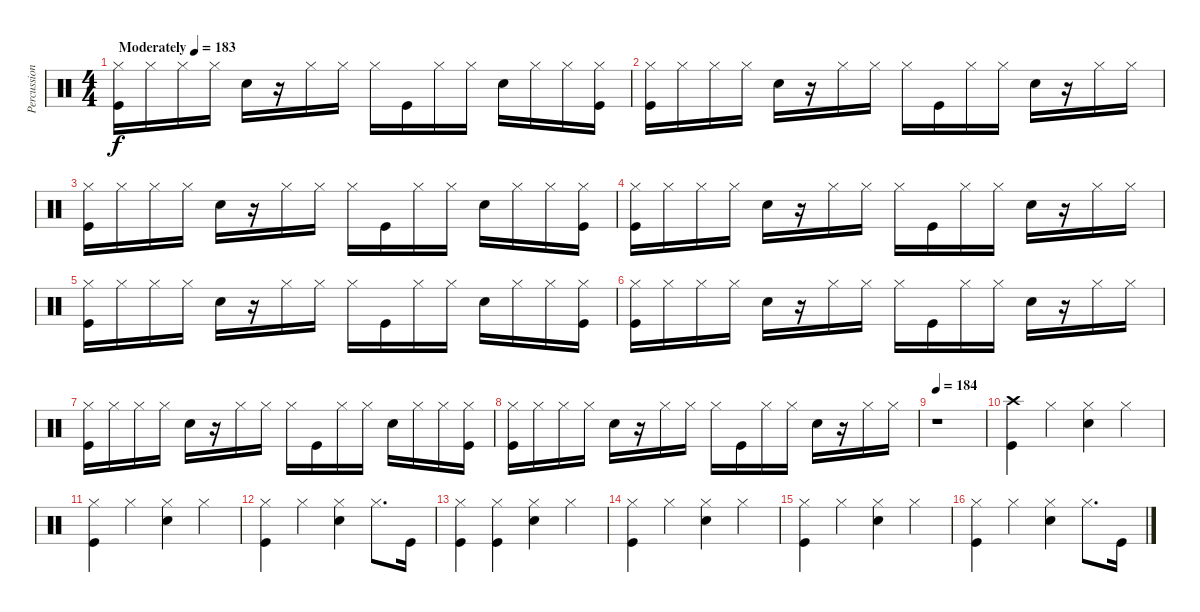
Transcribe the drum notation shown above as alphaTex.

\track ("Percussion" "Percussion") {instrument percussion}
\staff {score}
\articulation defaults
\ts (4 4)
\tempo (183 "Moderately")
\tempo 92
\tempo (183 "Moderately")
\clef neutral
\ks c
("Hi-Hat (closed)" "Kick (hit)").16{dy f} "Hi-Hat (closed)".16 "Hi-Hat (closed)".16 "Hi-Hat (closed)".16 "Snare (hit) 2".16 r.16 "Hi-Hat (closed)".16 "Hi-Hat (closed)".16 "Hi-Hat (closed)".16 "Kick (hit)".16 "Hi-Hat (closed)".16 "Hi-Hat (closed)".16 "Snare (hit) 2".16 "Hi-Hat (closed)".16 "Hi-Hat (closed)".16 ("Hi-Hat (closed)" "Kick (hit)").16 |
("Hi-Hat (closed)" "Kick (hit)").16 "Hi-Hat (closed)".16 "Hi-Hat (closed)".16 "Hi-Hat (closed)".16 "Snare (hit) 2".16 r.16 "Hi-Hat (closed)".16 "Hi-Hat (closed)".16 "Hi-Hat (closed)".16 "Kick (hit)".16 "Hi-Hat (closed)".16 "Hi-Hat (closed)".16 "Snare (hit) 2".16 r.16 "Hi-Hat (closed)".16 "Hi-Hat (closed)".16 |
("Hi-Hat (closed)" "Kick (hit)").16 "Hi-Hat (closed)".16 "Hi-Hat (closed)".16 "Hi-Hat (closed)".16 "Snare (hit) 2".16 r.16 "Hi-Hat (closed)".16 "Hi-Hat (closed)".16 "Hi-Hat (closed)".16 "Kick (hit)".16 "Hi-Hat (closed)".16 "Hi-Hat (closed)".16 "Snare (hit) 2".16 "Hi-Hat (closed)".16 "Hi-Hat (closed)".16 ("Hi-Hat (closed)" "Kick (hit)").16 |
("Hi-Hat (closed)" "Kick (hit)").16 "Hi-Hat (closed)".16 "Hi-Hat (closed)".16 "Hi-Hat (closed)".16 "Snare (hit) 2".16 r.16 "Hi-Hat (closed)".16 "Hi-Hat (closed)".16 "Hi-Hat (closed)".16 "Kick (hit)".16 "Hi-Hat (closed)".16 "Hi-Hat (closed)".16 "Snare (hit) 2".16 r.16 "Hi-Hat (closed)".16 "Hi-Hat (closed)".16 |
("Hi-Hat (closed)" "Kick (hit)").16 "Hi-Hat (closed)".16 "Hi-Hat (closed)".16 "Hi-Hat (closed)".16 "Snare (hit) 2".16 r.16 "Hi-Hat (closed)".16 "Hi-Hat (closed)".16 "Hi-Hat (closed)".16 "Kick (hit)".16 "Hi-Hat (closed)".16 "Hi-Hat (closed)".16 "Snare (hit) 2".16 "Hi-Hat (closed)".16 "Hi-Hat (closed)".16 ("Hi-Hat (closed)" "Kick (hit)").16 |
("Hi-Hat (closed)" "Kick (hit)").16 "Hi-Hat (closed)".16 "Hi-Hat (closed)".16 "Hi-Hat (closed)".16 "Snare (hit) 2".16 r.16 "Hi-Hat (closed)".16 "Hi-Hat (closed)".16 "Hi-Hat (closed)".16 "Kick (hit)".16 "Hi-Hat (closed)".16 "Hi-Hat (closed)".16 "Snare (hit) 2".16 r.16 "Hi-Hat (closed)".16 "Hi-Hat (closed)".16 |
("Hi-Hat (closed)" "Kick (hit)").16 "Hi-Hat (closed)".16 "Hi-Hat (closed)".16 "Hi-Hat (closed)".16 "Snare (hit) 2".16 r.16 "Hi-Hat (closed)".16 "Hi-Hat (closed)".16 "Hi-Hat (closed)".16 "Kick (hit)".16 "Hi-Hat (closed)".16 "Hi-Hat (closed)".16 "Snare (hit) 2".16 "Hi-Hat (closed)".16 "Hi-Hat (closed)".16 ("Hi-Hat (closed)" "Kick (hit)").16 |
("Hi-Hat (closed)" "Kick (hit)").16 "Hi-Hat (closed)".16 "Hi-Hat (closed)".16 "Hi-Hat (closed)".16 "Snare (hit) 2".16 r.16 "Hi-Hat (closed)".16 "Hi-Hat (closed)".16 "Hi-Hat (closed)".16 "Kick (hit)".16 "Hi-Hat (closed)".16 "Hi-Hat (closed)".16 "Snare (hit) 2".16 r.16 "Hi-Hat (closed)".16 "Hi-Hat (closed)".16 |
\tempo 184
r.1 |
("Crash high (hit)" "Kick (hit)").4 "Hi-Hat (closed)".4 ("Hi-Hat (closed)" "Electric Snare (hit)").4 "Hi-Hat (closed)".4 |
("Hi-Hat (closed)" "Kick (hit)").4 "Hi-Hat (closed)".4 ("Hi-Hat (closed)" "Electric Snare (hit)").4 "Hi-Hat (closed)".4 |
("Hi-Hat (closed)" "Kick (hit)").4 "Hi-Hat (closed)".4 ("Hi-Hat (closed)" "Electric Snare (hit)").4 "Hi-Hat (closed)".8{d} "Kick (hit)".16 |
("Hi-Hat (closed)" "Kick (hit)").4 ("Hi-Hat (closed)" "Kick (hit)").4 ("Hi-Hat (closed)" "Electric Snare (hit)").4 "Hi-Hat (closed)".4 |
("Hi-Hat (closed)" "Kick (hit)").4 "Hi-Hat (closed)".4 ("Hi-Hat (closed)" "Electric Snare (hit)").4 "Hi-Hat (closed)".4 |
("Hi-Hat (closed)" "Kick (hit)").4 "Hi-Hat (closed)".4 ("Hi-Hat (closed)" "Electric Snare (hit)").4 "Hi-Hat (closed)".4 |
("Hi-Hat (closed)" "Kick (hit)").4 "Hi-Hat (closed)".4 ("Hi-Hat (closed)" "Electric Snare (hit)").4 "Hi-Hat (closed)".8{d} "Kick (hit)".16
